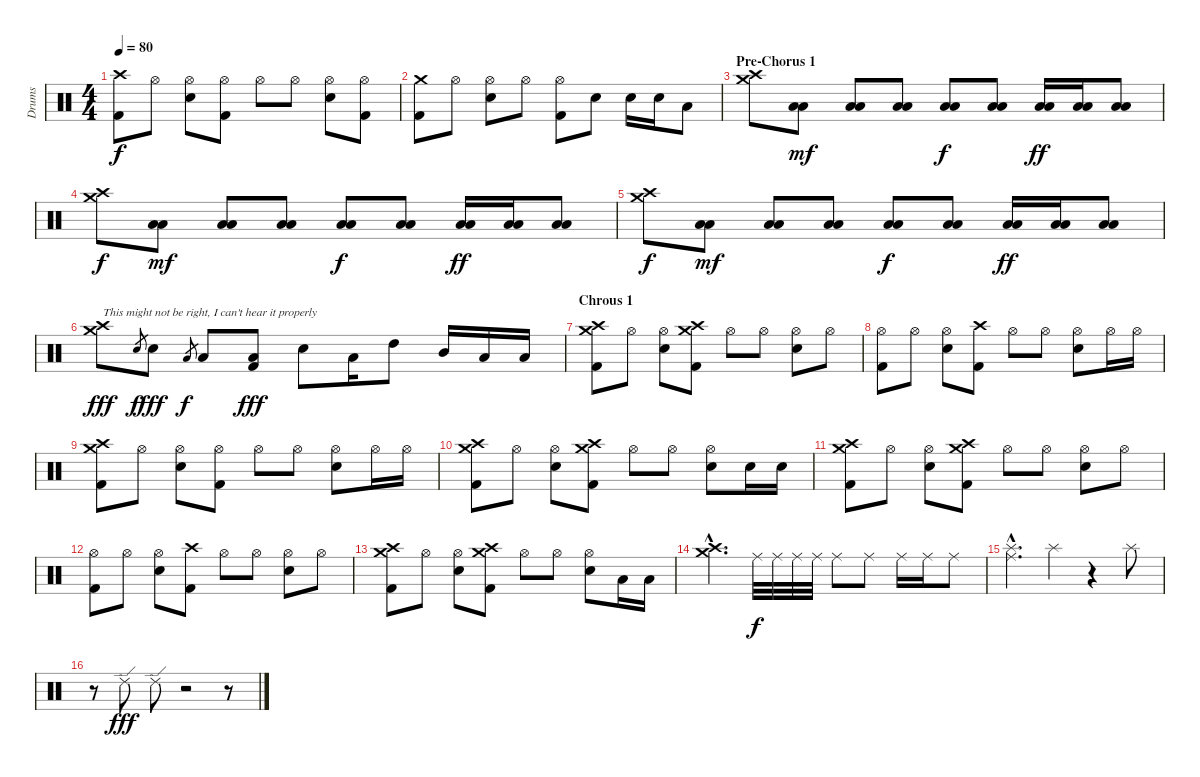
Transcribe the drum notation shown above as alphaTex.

\track ("Drums" "Drums") {instrument percussion}
\staff {score}
\articulation defaults
\ts (4 4)
\tempo 80
\clef neutral
\ks c
("Crash high (hit)" "Kick (hit) 2").8{dy f} "Hi-Hat (open)".8 ("Hi-Hat (open)" "Electric Snare (hit)").8 ("Hi-Hat (open)" "Kick (hit) 2").8 "Hi-Hat (open)".8 "Hi-Hat (open)".8 ("Hi-Hat (open)" "Electric Snare (hit)").8 ("Hi-Hat (open)" "Kick (hit) 2").8 |
("Crash medium (hit)" "Kick (hit) 2").8 "Hi-Hat (open)".8 ("Hi-Hat (open)" "Electric Snare (hit)").8 "Hi-Hat (open)".8 ("Hi-Hat (open)" "Kick (hit) 2").8 "Electric Snare (hit)".8 "Electric Snare (hit)".16 "Electric Snare (hit)".16 "Low Floor Tom (hit)".8 |
\section ("" "Pre-Chorus 1")
("Crash medium (hit)" "Crash high (hit)").8 ("Low Tom (hit)" "Low Floor Tom (hit)").8{dy mf} ("Low Tom (hit)" "Low Floor Tom (hit)").8 ("Low Tom (hit)" "Low Floor Tom (hit)").8 ("Low Tom (hit)" "Low Floor Tom (hit)").8{dy f} ("Low Tom (hit)" "Low Floor Tom (hit)").8 ("Low Tom (hit)" "Low Floor Tom (hit)").16{dy ff} ("Low Tom (hit)" "Low Floor Tom (hit)").16 ("Low Tom (hit)" "Low Floor Tom (hit)").8 |
("Crash medium (hit)" "Crash high (hit)").8{dy f} ("Low Tom (hit)" "Low Floor Tom (hit)").8{dy mf} ("Low Tom (hit)" "Low Floor Tom (hit)").8 ("Low Tom (hit)" "Low Floor Tom (hit)").8 ("Low Tom (hit)" "Low Floor Tom (hit)").8{dy f} ("Low Tom (hit)" "Low Floor Tom (hit)").8 ("Low Tom (hit)" "Low Floor Tom (hit)").16{dy ff} ("Low Tom (hit)" "Low Floor Tom (hit)").16 ("Low Tom (hit)" "Low Floor Tom (hit)").8 |
("Crash medium (hit)" "Crash high (hit)").8{dy f} ("Low Tom (hit)" "Low Floor Tom (hit)").8{dy mf} ("Low Tom (hit)" "Low Floor Tom (hit)").8 ("Low Tom (hit)" "Low Floor Tom (hit)").8 ("Low Tom (hit)" "Low Floor Tom (hit)").8{dy f} ("Low Tom (hit)" "Low Floor Tom (hit)").8 ("Low Tom (hit)" "Low Floor Tom (hit)").16{dy ff} ("Low Tom (hit)" "Low Floor Tom (hit)").16 ("Low Tom (hit)" "Low Floor Tom (hit)").8 |
("Crash medium (hit)" "Crash high (hit)").8{txt "This might not be right, I can't hear it properly" dy fff} "Electric Snare (hit)".8{gr dy f} "Electric Snare (hit)".8{dy fff} "Low Floor Tom (hit)".8{gr dy f} "Low Floor Tom (hit)".8 ("Low Tom (hit)" "Kick (hit) 2").8{dy fff} "Electric Snare (hit)".8 "Low Floor Tom (hit)".16 "High Tom (hit)".8 "Mid Tom (hit)".16 "Low Tom (hit)".16 "Low Floor Tom (hit)".16 |
\section ("" "Chrous 1")
("Crash high (hit)" "Crash medium (hit)" "Kick (hit) 2").8 "Hi-Hat (open)".8 ("Hi-Hat (open)" "Electric Snare (hit)").8 ("Crash high (hit)" "Crash medium (hit)" "Kick (hit) 2").8 "Hi-Hat (open)".8 "Hi-Hat (open)".8 ("Hi-Hat (open)" "Electric Snare (hit)").8 "Hi-Hat (open)".8 |
("Hi-Hat (open)" "Kick (hit) 2").8 "Hi-Hat (open)".8 ("Hi-Hat (open)" "Electric Snare (hit)").8 ("Crash high (hit)" "Kick (hit) 2").8 "Hi-Hat (open)".8 "Hi-Hat (open)".8 ("Hi-Hat (open)" "Electric Snare (hit)").8 "Hi-Hat (open)".16 "Hi-Hat (open)".16 |
("Crash high (hit)" "Crash medium (hit)" "Kick (hit) 2").8 "Hi-Hat (open)".8 ("Hi-Hat (open)" "Electric Snare (hit)").8 ("Hi-Hat (open)" "Kick (hit) 2").8 "Hi-Hat (open)".8 "Hi-Hat (open)".8 ("Hi-Hat (open)" "Electric Snare (hit)").8 "Hi-Hat (open)".16 "Hi-Hat (open)".16 |
("Crash high (hit)" "Crash medium (hit)" "Kick (hit) 2").8 "Hi-Hat (open)".8 ("Hi-Hat (open)" "Electric Snare (hit)").8 ("Crash high (hit)" "Crash medium (hit)" "Kick (hit) 2").8 "Hi-Hat (open)".8 "Hi-Hat (open)".8 ("Hi-Hat (open)" "Electric Snare (hit)").8 "Electric Snare (hit)".16 "Electric Snare (hit)".16 |
("Crash high (hit)" "Crash medium (hit)" "Kick (hit) 2").8 "Hi-Hat (open)".8 ("Hi-Hat (open)" "Electric Snare (hit)").8 ("Crash high (hit)" "Crash medium (hit)" "Kick (hit) 2").8 "Hi-Hat (open)".8 "Hi-Hat (open)".8 ("Hi-Hat (open)" "Electric Snare (hit)").8 "Hi-Hat (open)".8 |
("Hi-Hat (open)" "Kick (hit) 2").8 "Hi-Hat (open)".8 ("Hi-Hat (open)" "Electric Snare (hit)").8 ("Crash high (hit)" "Kick (hit) 2").8 "Hi-Hat (open)".8 "Hi-Hat (open)".8 ("Hi-Hat (open)" "Electric Snare (hit)").8 "Hi-Hat (open)".8 |
("Crash high (hit)" "Crash medium (hit)" "Kick (hit) 2").8 "Hi-Hat (open)".8 ("Hi-Hat (open)" "Electric Snare (hit)").8 ("Crash high (hit)" "Crash medium (hit)" "Kick (hit) 2").8 "Hi-Hat (open)".8 "Hi-Hat (open)".8 ("Hi-Hat (open)" "Electric Snare (hit)").8 "Low Tom (hit)".16 "Low Floor Tom (hit)".16 |
("Crash medium (hit)"{hac} "Crash high (hit)"{hac}).4{d} "Ride (middle)".32{dy f} "Ride (middle)".32 "Ride (middle)".32 "Ride (middle)".32 "Ride (middle)".8 "Ride (middle)".8 "Ride (middle)".16 "Ride (middle)".16 "Ride (middle)".8 |
("Splash (hit)"{hac} "Ride (middle)"{hac}).4{d} "Splash (hit)".4 r.4 "Splash (hit)".8 |
r.8 "Ride (edge) 2".8{dy fff} "Ride (edge) 2".8 r.2 r.8
